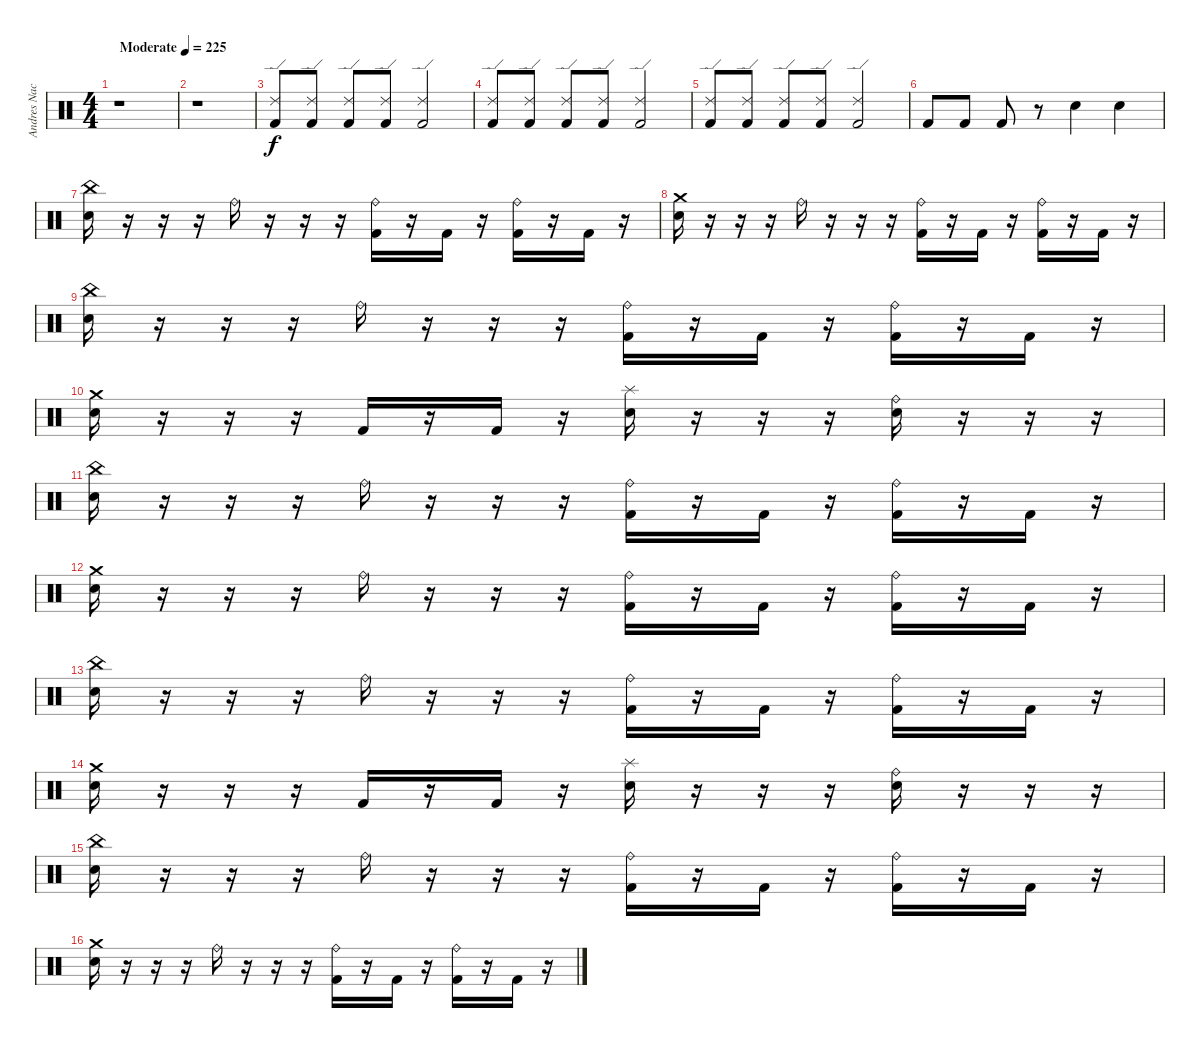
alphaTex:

\track ("Andres Nacrur" "Andres Nac") {instrument percussion}
\staff {score}
\articulation defaults
\ts (4 4)
\tempo (225 "Moderate")
\clef neutral
\ks c
r.1{dy f} |
r.1 |
("Ride (edge) 2" "Kick (hit) 2").8 ("Ride (edge) 2" "Kick (hit) 2").8 ("Ride (edge) 2" "Kick (hit) 2").8 ("Ride (edge) 2" "Kick (hit) 2").8 ("Ride (edge) 2" "Kick (hit) 2").2 |
("Ride (edge) 2" "Kick (hit) 2").8 ("Ride (edge) 2" "Kick (hit) 2").8 ("Ride (edge) 2" "Kick (hit) 2").8 ("Ride (edge) 2" "Kick (hit) 2").8 ("Ride (edge) 2" "Kick (hit) 2").2 |
("Ride (edge) 2" "Kick (hit) 2").8 ("Ride (edge) 2" "Kick (hit) 2").8 ("Ride (edge) 2" "Kick (hit) 2").8 ("Ride (edge) 2" "Kick (hit) 2").8 ("Ride (edge) 2" "Kick (hit) 2").2 |
"Kick (hit) 2".8 "Kick (hit) 2".8 "Kick (hit) 2".8 r.8 "Snare (hit) 2".4 "Snare (hit) 2".4 |
("China (hit)" "Snare (hit) 2").16 r.16 r.16 r.16 "Ride (bell)".16 r.16 r.16 r.16 ("Ride (bell)" "Kick (hit) 2").16 r.16 "Kick (hit) 2".16 r.16 ("Ride (bell)" "Kick (hit) 2").16 r.16 "Kick (hit) 2".16 r.16 |
("Crash medium (hit)" "Snare (hit) 2").16 r.16 r.16 r.16 "Ride (bell)".16 r.16 r.16 r.16 ("Ride (bell)" "Kick (hit) 2").16 r.16 "Kick (hit) 2".16 r.16 ("Ride (bell)" "Kick (hit) 2").16 r.16 "Kick (hit) 2".16 r.16 |
("China (hit)" "Snare (hit) 2").16 r.16 r.16 r.16 "Ride (bell)".16 r.16 r.16 r.16 ("Ride (bell)" "Kick (hit) 2").16 r.16 "Kick (hit) 2".16 r.16 ("Ride (bell)" "Kick (hit) 2").16 r.16 "Kick (hit) 2".16 r.16 |
("Crash medium (hit)" "Snare (hit) 2").16 r.16 r.16 r.16 "Kick (hit) 2".16 r.16 "Kick (hit) 2".16 r.16 ("Splash (hit)" "Snare (hit) 2").16 r.16 r.16 r.16 ("Ride (bell)" "Snare (hit) 2").16 r.16 r.16 r.16 |
("China (hit)" "Snare (hit) 2").16 r.16 r.16 r.16 "Ride (bell)".16 r.16 r.16 r.16 ("Ride (bell)" "Kick (hit) 2").16 r.16 "Kick (hit) 2".16 r.16 ("Ride (bell)" "Kick (hit) 2").16 r.16 "Kick (hit) 2".16 r.16 |
("Crash medium (hit)" "Snare (hit) 2").16 r.16 r.16 r.16 "Ride (bell)".16 r.16 r.16 r.16 ("Ride (bell)" "Kick (hit) 2").16 r.16 "Kick (hit) 2".16 r.16 ("Ride (bell)" "Kick (hit) 2").16 r.16 "Kick (hit) 2".16 r.16 |
("China (hit)" "Snare (hit) 2").16 r.16 r.16 r.16 "Ride (bell)".16 r.16 r.16 r.16 ("Ride (bell)" "Kick (hit) 2").16 r.16 "Kick (hit) 2".16 r.16 ("Ride (bell)" "Kick (hit) 2").16 r.16 "Kick (hit) 2".16 r.16 |
("Crash medium (hit)" "Snare (hit) 2").16 r.16 r.16 r.16 "Kick (hit) 2".16 r.16 "Kick (hit) 2".16 r.16 ("Splash (hit)" "Snare (hit) 2").16 r.16 r.16 r.16 ("Ride (bell)" "Snare (hit) 2").16 r.16 r.16 r.16 |
("China (hit)" "Snare (hit) 2").16 r.16 r.16 r.16 "Ride (bell)".16 r.16 r.16 r.16 ("Ride (bell)" "Kick (hit) 2").16 r.16 "Kick (hit) 2".16 r.16 ("Ride (bell)" "Kick (hit) 2").16 r.16 "Kick (hit) 2".16 r.16 |
("Crash medium (hit)" "Snare (hit) 2").16 r.16 r.16 r.16 "Ride (bell)".16 r.16 r.16 r.16 ("Ride (bell)" "Kick (hit) 2").16 r.16 "Kick (hit) 2".16 r.16 ("Ride (bell)" "Kick (hit) 2").16 r.16 "Kick (hit) 2".16 r.16
